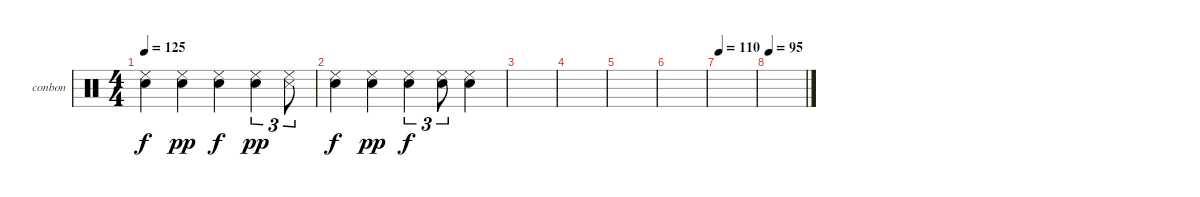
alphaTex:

\defaultSystemsLayout 4
\bracketExtendMode groupsimilarinstruments
\firstSystemTrackNameOrientation horizontal
\otherSystemsTrackNameOrientation horizontal
\track ("Bongos N Congas" "conbon") {instrument percussion}
\staff {score}
\articulation defaults
\ts (4 4)
\tempo 125
\clef neutral
\scale
0.333333
\ks c
("Cowbell low (tip)" "Snare (hit) 2").4{dy f} ("Cowbell low (tip)" "Snare (hit) 2").4{dy pp} ("Cowbell low (tip)" "Snare (hit) 2").4{dy f} ("Cowbell low (tip)" "Snare (hit) 2").4{tu (3 2) dy pp} ("Cowbell low (tip)" "Snare (side stick) 3").8{tu (3 2)} |
("Cowbell low (tip)" "Snare (hit) 2").4{dy f} ("Cowbell low (tip)" "Snare (hit) 2").4{dy pp} ("Cowbell low (tip)" "Snare (hit) 2").4{tu (3 2) dy f} ("Cowbell low (tip)" "Snare (hit) 2").8{tu (3 2)} ("Cowbell low (tip)" "Snare (hit) 2").4 |
|
|
|
|
\tempo 110
|
\tempo 95
